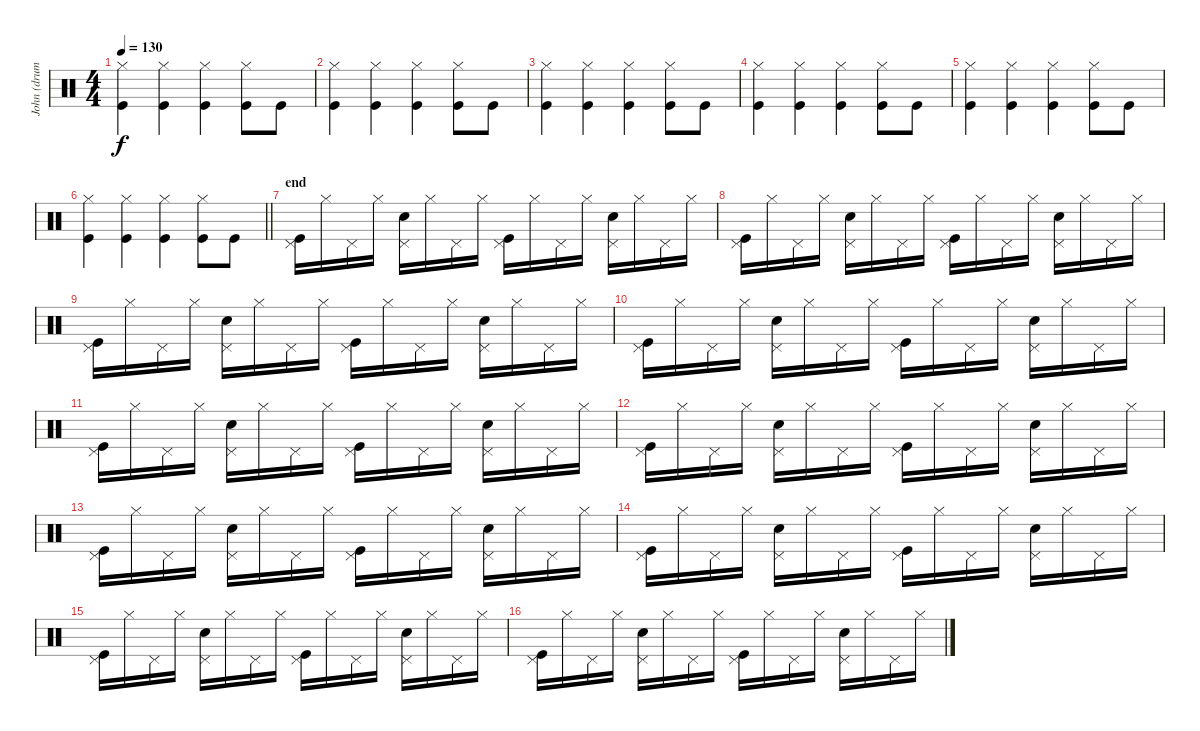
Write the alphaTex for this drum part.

\track ("John (drums)" "John (drum") {instrument percussion}
\staff {score}
\articulation defaults
\ts (4 4)
\tempo 130
\clef neutral
\ks c
("Hi-Hat (closed)" "Kick (hit)").4{dy f} ("Hi-Hat (closed)" "Kick (hit)").4 ("Hi-Hat (closed)" "Kick (hit)").4 ("Hi-Hat (closed)" "Kick (hit)").8 "Kick (hit)".8 |
("Hi-Hat (closed)" "Kick (hit)").4 ("Hi-Hat (closed)" "Kick (hit)").4 ("Hi-Hat (closed)" "Kick (hit)").4 ("Hi-Hat (closed)" "Kick (hit)").8 "Kick (hit)".8 |
("Hi-Hat (closed)" "Kick (hit)").4 ("Hi-Hat (closed)" "Kick (hit)").4 ("Hi-Hat (closed)" "Kick (hit)").4 ("Hi-Hat (closed)" "Kick (hit)").8 "Kick (hit)".8 |
("Hi-Hat (closed)" "Kick (hit)").4 ("Hi-Hat (closed)" "Kick (hit)").4 ("Hi-Hat (closed)" "Kick (hit)").4 ("Hi-Hat (closed)" "Kick (hit)").8 "Kick (hit)".8 |
("Hi-Hat (closed)" "Kick (hit)").4 ("Hi-Hat (closed)" "Kick (hit)").4 ("Hi-Hat (closed)" "Kick (hit)").4 ("Hi-Hat (closed)" "Kick (hit)").8 "Kick (hit)".8 |
\barLineRight lightlight
("Hi-Hat (closed)" "Kick (hit)").4 ("Hi-Hat (closed)" "Kick (hit)").4 ("Hi-Hat (closed)" "Kick (hit)").4 ("Hi-Hat (closed)" "Kick (hit)").8 "Kick (hit)".8 |
\section ("" "end")
("Pedal Hi-Hat (hit)" "Kick (hit)").16 "Hi-Hat (closed)".16 "Pedal Hi-Hat (hit)".16 "Hi-Hat (closed)".16 ("Pedal Hi-Hat (hit)" "Electric Snare (hit)").16 "Hi-Hat (closed)".16 "Pedal Hi-Hat (hit)".16 "Hi-Hat (closed)".16 ("Pedal Hi-Hat (hit)" "Kick (hit)").16 "Hi-Hat (closed)".16 "Pedal Hi-Hat (hit)".16 "Hi-Hat (closed)".16 ("Pedal Hi-Hat (hit)" "Snare (hit) 2").16 "Hi-Hat (closed)".16 "Pedal Hi-Hat (hit)".16 "Hi-Hat (closed)".16 |
("Pedal Hi-Hat (hit)" "Kick (hit)").16 "Hi-Hat (closed)".16 "Pedal Hi-Hat (hit)".16 "Hi-Hat (closed)".16 ("Pedal Hi-Hat (hit)" "Electric Snare (hit)").16 "Hi-Hat (closed)".16 "Pedal Hi-Hat (hit)".16 "Hi-Hat (closed)".16 ("Pedal Hi-Hat (hit)" "Kick (hit)").16 "Hi-Hat (closed)".16 "Pedal Hi-Hat (hit)".16 "Hi-Hat (closed)".16 ("Pedal Hi-Hat (hit)" "Snare (hit) 2").16 "Hi-Hat (closed)".16 "Pedal Hi-Hat (hit)".16 "Hi-Hat (closed)".16 |
("Pedal Hi-Hat (hit)" "Kick (hit)").16 "Hi-Hat (closed)".16 "Pedal Hi-Hat (hit)".16 "Hi-Hat (closed)".16 ("Pedal Hi-Hat (hit)" "Electric Snare (hit)").16 "Hi-Hat (closed)".16 "Pedal Hi-Hat (hit)".16 "Hi-Hat (closed)".16 ("Pedal Hi-Hat (hit)" "Kick (hit)").16 "Hi-Hat (closed)".16 "Pedal Hi-Hat (hit)".16 "Hi-Hat (closed)".16 ("Pedal Hi-Hat (hit)" "Snare (hit) 2").16 "Hi-Hat (closed)".16 "Pedal Hi-Hat (hit)".16 "Hi-Hat (closed)".16 |
("Pedal Hi-Hat (hit)" "Kick (hit)").16 "Hi-Hat (closed)".16 "Pedal Hi-Hat (hit)".16 "Hi-Hat (closed)".16 ("Pedal Hi-Hat (hit)" "Electric Snare (hit)").16 "Hi-Hat (closed)".16 "Pedal Hi-Hat (hit)".16 "Hi-Hat (closed)".16 ("Pedal Hi-Hat (hit)" "Kick (hit)").16 "Hi-Hat (closed)".16 "Pedal Hi-Hat (hit)".16 "Hi-Hat (closed)".16 ("Pedal Hi-Hat (hit)" "Snare (hit) 2").16 "Hi-Hat (closed)".16 "Pedal Hi-Hat (hit)".16 "Hi-Hat (closed)".16 |
("Pedal Hi-Hat (hit)" "Kick (hit)").16 "Hi-Hat (closed)".16 "Pedal Hi-Hat (hit)".16 "Hi-Hat (closed)".16 ("Pedal Hi-Hat (hit)" "Electric Snare (hit)").16 "Hi-Hat (closed)".16 "Pedal Hi-Hat (hit)".16 "Hi-Hat (closed)".16 ("Pedal Hi-Hat (hit)" "Kick (hit)").16 "Hi-Hat (closed)".16 "Pedal Hi-Hat (hit)".16 "Hi-Hat (closed)".16 ("Pedal Hi-Hat (hit)" "Snare (hit) 2").16 "Hi-Hat (closed)".16 "Pedal Hi-Hat (hit)".16 "Hi-Hat (closed)".16 |
("Pedal Hi-Hat (hit)" "Kick (hit)").16 "Hi-Hat (closed)".16 "Pedal Hi-Hat (hit)".16 "Hi-Hat (closed)".16 ("Pedal Hi-Hat (hit)" "Electric Snare (hit)").16 "Hi-Hat (closed)".16 "Pedal Hi-Hat (hit)".16 "Hi-Hat (closed)".16 ("Pedal Hi-Hat (hit)" "Kick (hit)").16 "Hi-Hat (closed)".16 "Pedal Hi-Hat (hit)".16 "Hi-Hat (closed)".16 ("Pedal Hi-Hat (hit)" "Snare (hit) 2").16 "Hi-Hat (closed)".16 "Pedal Hi-Hat (hit)".16 "Hi-Hat (closed)".16 |
("Pedal Hi-Hat (hit)" "Kick (hit)").16 "Hi-Hat (closed)".16 "Pedal Hi-Hat (hit)".16 "Hi-Hat (closed)".16 ("Pedal Hi-Hat (hit)" "Electric Snare (hit)").16 "Hi-Hat (closed)".16 "Pedal Hi-Hat (hit)".16 "Hi-Hat (closed)".16 ("Pedal Hi-Hat (hit)" "Kick (hit)").16 "Hi-Hat (closed)".16 "Pedal Hi-Hat (hit)".16 "Hi-Hat (closed)".16 ("Pedal Hi-Hat (hit)" "Snare (hit) 2").16 "Hi-Hat (closed)".16 "Pedal Hi-Hat (hit)".16 "Hi-Hat (closed)".16 |
("Pedal Hi-Hat (hit)" "Kick (hit)").16 "Hi-Hat (closed)".16 "Pedal Hi-Hat (hit)".16 "Hi-Hat (closed)".16 ("Pedal Hi-Hat (hit)" "Electric Snare (hit)").16 "Hi-Hat (closed)".16 "Pedal Hi-Hat (hit)".16 "Hi-Hat (closed)".16 ("Pedal Hi-Hat (hit)" "Kick (hit)").16 "Hi-Hat (closed)".16 "Pedal Hi-Hat (hit)".16 "Hi-Hat (closed)".16 ("Pedal Hi-Hat (hit)" "Snare (hit) 2").16 "Hi-Hat (closed)".16 "Pedal Hi-Hat (hit)".16 "Hi-Hat (closed)".16 |
("Pedal Hi-Hat (hit)" "Kick (hit)").16 "Hi-Hat (closed)".16 "Pedal Hi-Hat (hit)".16 "Hi-Hat (closed)".16 ("Pedal Hi-Hat (hit)" "Electric Snare (hit)").16 "Hi-Hat (closed)".16 "Pedal Hi-Hat (hit)".16 "Hi-Hat (closed)".16 ("Pedal Hi-Hat (hit)" "Kick (hit)").16 "Hi-Hat (closed)".16 "Pedal Hi-Hat (hit)".16 "Hi-Hat (closed)".16 ("Pedal Hi-Hat (hit)" "Snare (hit) 2").16 "Hi-Hat (closed)".16 "Pedal Hi-Hat (hit)".16 "Hi-Hat (closed)".16 |
("Pedal Hi-Hat (hit)" "Kick (hit)").16 "Hi-Hat (closed)".16 "Pedal Hi-Hat (hit)".16 "Hi-Hat (closed)".16 ("Pedal Hi-Hat (hit)" "Electric Snare (hit)").16 "Hi-Hat (closed)".16 "Pedal Hi-Hat (hit)".16 "Hi-Hat (closed)".16 ("Pedal Hi-Hat (hit)" "Kick (hit)").16 "Hi-Hat (closed)".16 "Pedal Hi-Hat (hit)".16 "Hi-Hat (closed)".16 ("Pedal Hi-Hat (hit)" "Snare (hit) 2").16 "Hi-Hat (closed)".16 "Pedal Hi-Hat (hit)".16 "Hi-Hat (closed)".16
